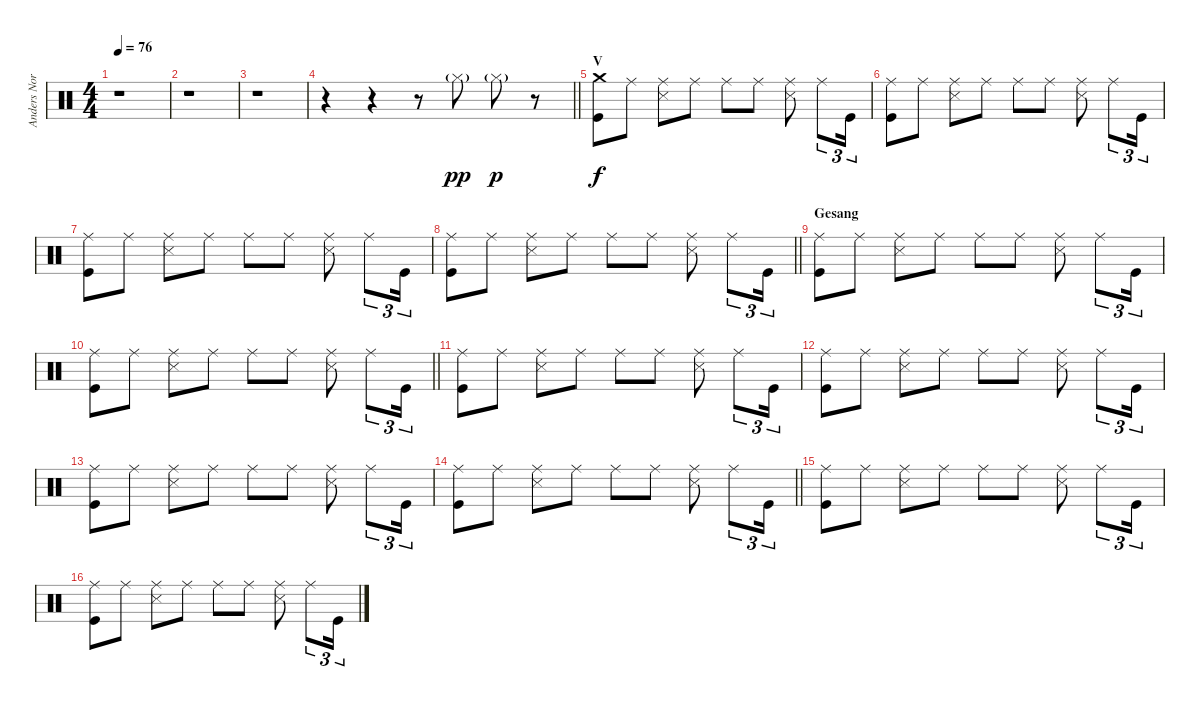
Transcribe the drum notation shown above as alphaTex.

\track ("Anders Nordin - Drums" "Anders Nor") {instrument percussion}
\staff {score}
\articulation defaults
\ts (4 4)
\tempo 76
\clef neutral
\ks c
r.1{dy mp} |
r.1 |
r.1 |
\barLineRight lightlight
r.4 r.4 r.8 "Hi-Hat (closed)"{g}.8{dy pp} "Hi-Hat (closed)"{g}.8{dy p} r.8 |
\section ("" "V")
("Crash medium (hit)" "Kick (hit)").8{dy f} "Ride (middle)".8 ("Ride (middle)" "Snare (side stick) 3").8 "Ride (middle)".8 "Ride (middle)".8 "Ride (middle)".8 ("Ride (middle)" "Snare (side stick) 3").8 "Ride (middle)".8{tu (3 2)} "Kick (hit)".16{tu (3 2)} |
("Ride (middle)" "Kick (hit)").8 "Ride (middle)".8 ("Ride (middle)" "Snare (side stick) 3").8 "Ride (middle)".8 "Ride (middle)".8 "Ride (middle)".8 ("Ride (middle)" "Snare (side stick) 3").8 "Ride (middle)".8{tu (3 2)} "Kick (hit)".16{tu (3 2)} |
("Ride (middle)" "Kick (hit)").8 "Ride (middle)".8 ("Ride (middle)" "Snare (side stick) 3").8 "Ride (middle)".8 "Ride (middle)".8 "Ride (middle)".8 ("Ride (middle)" "Snare (side stick) 3").8 "Ride (middle)".8{tu (3 2)} "Kick (hit)".16{tu (3 2)} |
\barLineRight lightlight
("Ride (middle)" "Kick (hit)").8 "Ride (middle)".8 ("Ride (middle)" "Snare (side stick) 3").8 "Ride (middle)".8 "Ride (middle)".8 "Ride (middle)".8 ("Ride (middle)" "Snare (side stick) 3").8 "Ride (middle)".8{tu (3 2)} "Kick (hit)".16{tu (3 2)} |
\section ("" "Gesang")
("Ride (middle)" "Kick (hit)").8 "Ride (middle)".8 ("Ride (middle)" "Snare (side stick) 3").8 "Ride (middle)".8 "Ride (middle)".8 "Ride (middle)".8 ("Ride (middle)" "Snare (side stick) 3").8 "Ride (middle)".8{tu (3 2)} "Kick (hit)".16{tu (3 2)} |
\barLineRight lightlight
("Ride (middle)" "Kick (hit)").8 "Ride (middle)".8 ("Ride (middle)" "Snare (side stick) 3").8 "Ride (middle)".8 "Ride (middle)".8 "Ride (middle)".8 ("Ride (middle)" "Snare (side stick) 3").8 "Ride (middle)".8{tu (3 2)} "Kick (hit)".16{tu (3 2)} |
("Ride (middle)" "Kick (hit)").8 "Ride (middle)".8 ("Ride (middle)" "Snare (side stick) 3").8 "Ride (middle)".8 "Ride (middle)".8 "Ride (middle)".8 ("Ride (middle)" "Snare (side stick) 3").8 "Ride (middle)".8{tu (3 2)} "Kick (hit)".16{tu (3 2)} |
("Ride (middle)" "Kick (hit)").8 "Ride (middle)".8 ("Ride (middle)" "Snare (side stick) 3").8 "Ride (middle)".8 "Ride (middle)".8 "Ride (middle)".8 ("Ride (middle)" "Snare (side stick) 3").8 "Ride (middle)".8{tu (3 2)} "Kick (hit)".16{tu (3 2)} |
("Ride (middle)" "Kick (hit)").8 "Ride (middle)".8 ("Ride (middle)" "Snare (side stick) 3").8 "Ride (middle)".8 "Ride (middle)".8 "Ride (middle)".8 ("Ride (middle)" "Snare (side stick) 3").8 "Ride (middle)".8{tu (3 2)} "Kick (hit)".16{tu (3 2)} |
\barLineRight lightlight
("Ride (middle)" "Kick (hit)").8 "Ride (middle)".8 ("Ride (middle)" "Snare (side stick) 3").8 "Ride (middle)".8 "Ride (middle)".8 "Ride (middle)".8 ("Ride (middle)" "Snare (side stick) 3").8 "Ride (middle)".8{tu (3 2)} "Kick (hit)".16{tu (3 2)} |
("Ride (middle)" "Kick (hit)").8 "Ride (middle)".8 ("Ride (middle)" "Snare (side stick) 3").8 "Ride (middle)".8 "Ride (middle)".8 "Ride (middle)".8 ("Ride (middle)" "Snare (side stick) 3").8 "Ride (middle)".8{tu (3 2)} "Kick (hit)".16{tu (3 2)} |
("Ride (middle)" "Kick (hit)").8 "Ride (middle)".8 ("Ride (middle)" "Snare (side stick) 3").8 "Ride (middle)".8 "Ride (middle)".8 "Ride (middle)".8 ("Ride (middle)" "Snare (side stick) 3").8 "Ride (middle)".8{tu (3 2)} "Kick (hit)".16{tu (3 2)}
